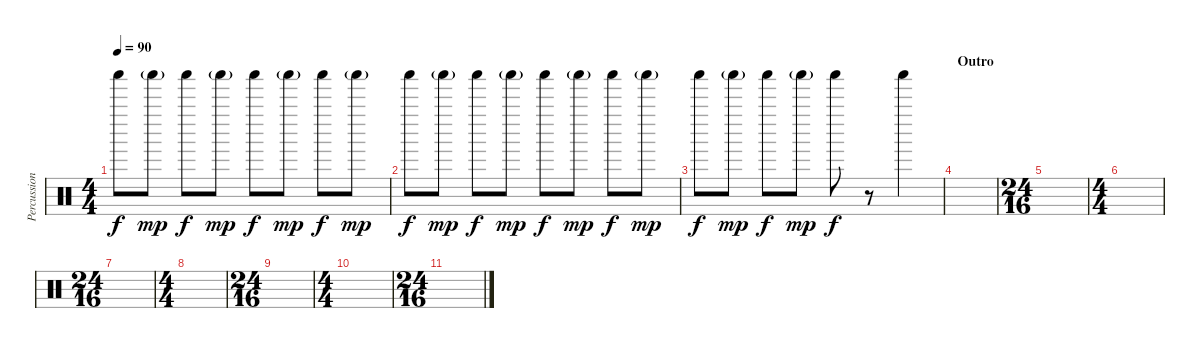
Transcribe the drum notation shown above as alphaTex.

\track ("Percussion 2" "Percussion") {instrument percussion}
\staff {score}
\articulation defaults
\ts (4 4)
\tempo 90
\clef neutral
\ks c "Shaker (hit)".8{dy f} "Shaker (hit)"{g}.8{dy mp} "Shaker (hit)".8{dy f} "Shaker (hit)"{g}.8{dy mp} "Shaker (hit)".8{dy f} "Shaker (hit)"{g}.8{dy mp} "Shaker (hit)".8{dy f} "Shaker (hit)"{g}.8{dy mp}
|
"Shaker (hit)".8{dy f} "Shaker (hit)"{g}.8{dy mp} "Shaker (hit)".8{dy f} "Shaker (hit)"{g}.8{dy mp} "Shaker (hit)".8{dy f} "Shaker (hit)"{g}.8{dy mp} "Shaker (hit)".8{dy f} "Shaker (hit)"{g}.8{dy mp} |
"Shaker (hit)".8{dy f} "Shaker (hit)"{g}.8{dy mp} "Shaker (hit)".8{dy f} "Shaker (hit)"{g}.8{dy mp} "Shaker (hit)".8{dy f} r.8 "Shaker (hit)".4 |
\section ("" "Outro")
|
\ts (24 16)
|
\ts (4 4)
|
\ts (24 16)
|
\ts (4 4)
|
\ts (24 16)
|
\ts (4 4)
|
\ts (24 16)
